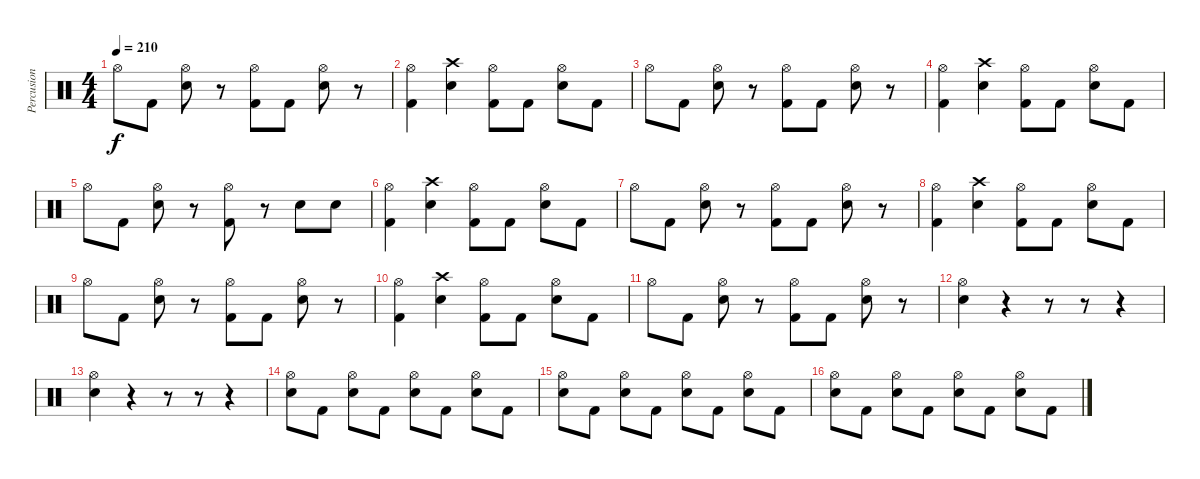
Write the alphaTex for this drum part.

\track ("Percusion" "Percusion") {instrument percussion}
\staff {score}
\articulation defaults
\ts (4 4)
\tempo 210
\clef neutral
\ks c "Hi-Hat (open)".8{dy f} "Kick (hit) 2".8
("Hi-Hat (open)" "Snare (hit) 2").8 r.8 ("Hi-Hat (open)" "Kick (hit) 2").8 "Kick (hit) 2".8 ("Hi-Hat (open)" "Snare (hit) 2").8 r.8 |
("Hi-Hat (open)" "Kick (hit) 2").4 ("Crash high (hit)" "Snare (hit) 2").4 ("Hi-Hat (open)" "Kick (hit) 2").8 "Kick (hit) 2".8 ("Hi-Hat (open)" "Snare (hit) 2").8 "Kick (hit) 2".8 |
"Hi-Hat (open)".8 "Kick (hit) 2".8 ("Hi-Hat (open)" "Snare (hit) 2").8 r.8 ("Hi-Hat (open)" "Kick (hit) 2").8 "Kick (hit) 2".8 ("Hi-Hat (open)" "Snare (hit) 2").8 r.8 |
("Hi-Hat (open)" "Kick (hit) 2").4 ("Crash high (hit)" "Snare (hit) 2").4 ("Hi-Hat (open)" "Kick (hit) 2").8 "Kick (hit) 2".8 ("Hi-Hat (open)" "Snare (hit) 2").8 "Kick (hit) 2".8 |
"Hi-Hat (open)".8 "Kick (hit) 2".8 ("Hi-Hat (open)" "Snare (hit) 2").8 r.8 ("Hi-Hat (open)" "Kick (hit) 2").8 r.8 "Snare (hit) 2".8 "Snare (hit) 2".8 |
("Hi-Hat (open)" "Kick (hit) 2").4 ("Crash high (hit)" "Snare (hit) 2").4 ("Hi-Hat (open)" "Kick (hit) 2").8 "Kick (hit) 2".8 ("Hi-Hat (open)" "Snare (hit) 2").8 "Kick (hit) 2".8 |
"Hi-Hat (open)".8 "Kick (hit) 2".8 ("Hi-Hat (open)" "Snare (hit) 2").8 r.8 ("Hi-Hat (open)" "Kick (hit) 2").8 "Kick (hit) 2".8 ("Hi-Hat (open)" "Snare (hit) 2").8 r.8 |
("Hi-Hat (open)" "Kick (hit) 2").4 ("Crash high (hit)" "Snare (hit) 2").4 ("Hi-Hat (open)" "Kick (hit) 2").8 "Kick (hit) 2".8 ("Hi-Hat (open)" "Snare (hit) 2").8 "Kick (hit) 2".8 |
"Hi-Hat (open)".8 "Kick (hit) 2".8 ("Hi-Hat (open)" "Snare (hit) 2").8 r.8 ("Hi-Hat (open)" "Kick (hit) 2").8 "Kick (hit) 2".8 ("Hi-Hat (open)" "Snare (hit) 2").8 r.8 |
("Hi-Hat (open)" "Kick (hit) 2").4 ("Crash high (hit)" "Snare (hit) 2").4 ("Hi-Hat (open)" "Kick (hit) 2").8 "Kick (hit) 2".8 ("Hi-Hat (open)" "Snare (hit) 2").8 "Kick (hit) 2".8 |
"Hi-Hat (open)".8 "Kick (hit) 2".8 ("Hi-Hat (open)" "Snare (hit) 2").8 r.8 ("Hi-Hat (open)" "Kick (hit) 2").8 "Kick (hit) 2".8 ("Hi-Hat (open)" "Snare (hit) 2").8 r.8 |
("Hi-Hat (open)" "Snare (hit) 2").4 r.4 r.8 r.8 r.4 |
("Hi-Hat (open)" "Snare (hit) 2").4 r.4 r.8 r.8 r.4 |
("Hi-Hat (open)" "Snare (hit) 2").8 "Kick (hit) 2".8 ("Hi-Hat (open)" "Snare (hit) 2").8 "Kick (hit) 2".8 ("Hi-Hat (open)" "Snare (hit) 2").8 "Kick (hit) 2".8 ("Hi-Hat (open)" "Snare (hit) 2").8 "Kick (hit) 2".8 |
("Hi-Hat (open)" "Snare (hit) 2").8 "Kick (hit) 2".8 ("Hi-Hat (open)" "Snare (hit) 2").8 "Kick (hit) 2".8 ("Hi-Hat (open)" "Snare (hit) 2").8 "Kick (hit) 2".8 ("Hi-Hat (open)" "Snare (hit) 2").8 "Kick (hit) 2".8 |
("Hi-Hat (open)" "Snare (hit) 2").8 "Kick (hit) 2".8 ("Hi-Hat (open)" "Snare (hit) 2").8 "Kick (hit) 2".8 ("Hi-Hat (open)" "Snare (hit) 2").8 "Kick (hit) 2".8 ("Hi-Hat (open)" "Snare (hit) 2").8 "Kick (hit) 2".8
